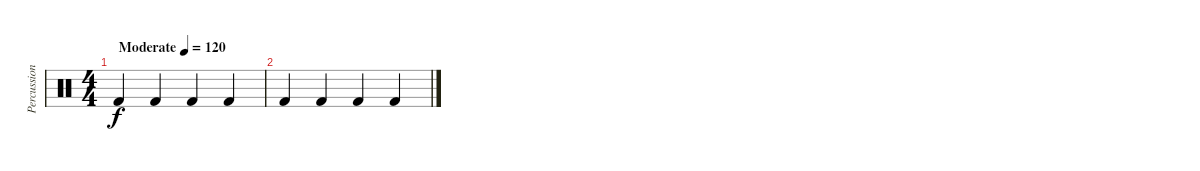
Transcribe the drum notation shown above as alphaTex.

\track ("Percussion" "Percussion") {instrument percussion}
\staff {score}
\articulation defaults
\ts (4 4)
\tempo (120 "Moderate")
\clef neutral
\ks c "Kick (hit) 2".4{dy f} "Kick (hit) 2".4 "Kick (hit) 2".4 "Kick (hit) 2".4
|
"Kick (hit) 2".4 "Kick (hit) 2".4 "Kick (hit) 2".4 "Kick (hit) 2".4
